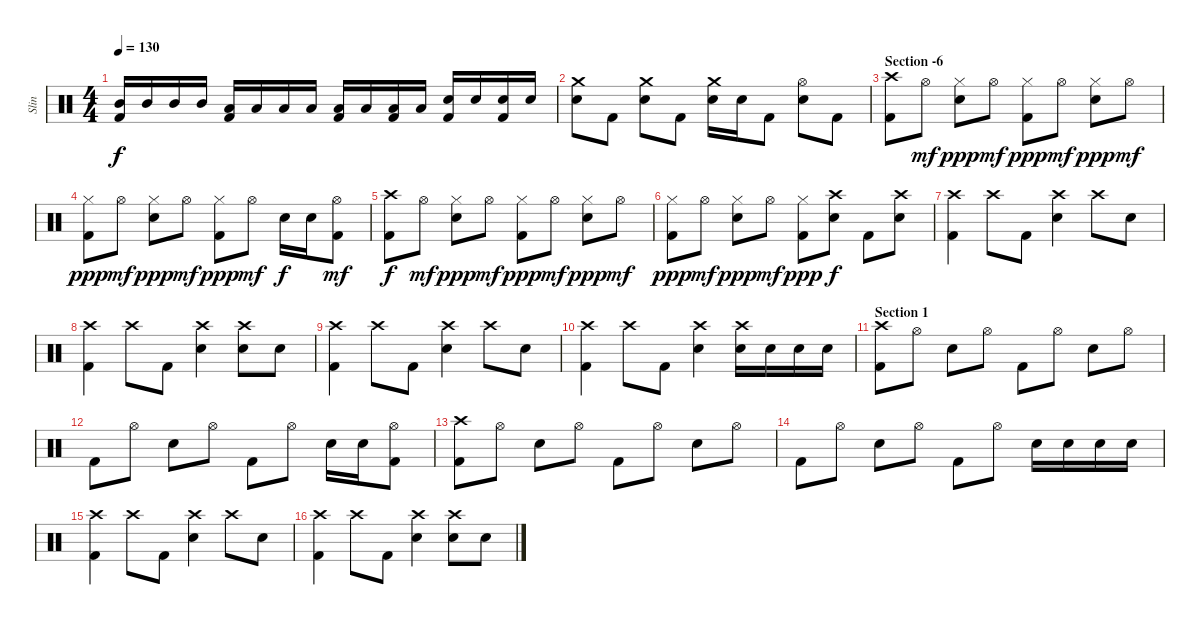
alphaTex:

\track ("Slin" "Slin") {instrument percussion}
\staff {score}
\articulation defaults
\ts (4 4)
\tempo 130
\clef neutral
\ks c
("Mid Tom (hit)" "Kick (hit) 2").16{dy f} "Mid Tom (hit)".16 "Mid Tom (hit)".16 "Mid Tom (hit)".16 ("Low Tom (hit)" "Kick (hit) 2").16 "Low Tom (hit)".16 "Low Tom (hit)".16 "Low Tom (hit)".16 ("Low Floor Tom (hit)" "Kick (hit) 2").16 "Low Floor Tom (hit)".16 ("Low Floor Tom (hit)" "Kick (hit) 2").16 "Low Floor Tom (hit)".16 ("Snare (hit) 2" "Kick (hit) 2").16 "Snare (hit) 2".16 ("Snare (hit) 2" "Kick (hit) 2").16 "Snare (hit) 2".16 |
("Crash medium (hit)" "Snare (hit) 2").8 "Kick (hit) 2".8 ("Crash medium (hit)" "Snare (hit) 2").8 "Kick (hit) 2".8 ("Crash medium (hit)" "Snare (hit) 2").16 "Snare (hit) 2".16 "Kick (hit) 2".8 ("Hi-Hat (open)" "Snare (hit) 2").8 "Kick (hit) 2".8 |
\section ("" "Section -6")
("Crash high (hit)" "Kick (hit) 2").8 "Hi-Hat (open)".8{dy mf} ("Hi-Hat (closed)" "Snare (hit) 2").8{dy ppp} "Hi-Hat (open)".8{dy mf} ("Hi-Hat (closed)" "Kick (hit) 2").8{dy ppp} "Hi-Hat (open)".8{dy mf} ("Hi-Hat (closed)" "Snare (hit) 2").8{dy ppp} "Hi-Hat (open)".8{dy mf} |
("Hi-Hat (closed)" "Kick (hit) 2").8{dy ppp} "Hi-Hat (open)".8{dy mf} ("Hi-Hat (closed)" "Snare (hit) 2").8{dy ppp} "Hi-Hat (open)".8{dy mf} ("Hi-Hat (closed)" "Kick (hit) 2").8{dy ppp} "Hi-Hat (open)".8{dy mf} "Snare (hit) 2".16{dy f} "Snare (hit) 2".16 ("Hi-Hat (open)" "Kick (hit) 2").8{dy mf} |
("Crash high (hit)" "Kick (hit) 2").8{dy f} "Hi-Hat (open)".8{dy mf} ("Hi-Hat (closed)" "Snare (hit) 2").8{dy ppp} "Hi-Hat (open)".8{dy mf} ("Hi-Hat (closed)" "Kick (hit) 2").8{dy ppp} "Hi-Hat (open)".8{dy mf} ("Hi-Hat (closed)" "Snare (hit) 2").8{dy ppp} "Hi-Hat (open)".8{dy mf} |
("Hi-Hat (closed)" "Kick (hit) 2").8{dy ppp} "Hi-Hat (open)".8{dy mf} ("Hi-Hat (closed)" "Snare (hit) 2").8{dy ppp} "Hi-Hat (open)".8{dy mf} ("Hi-Hat (closed)" "Kick (hit) 2").8{dy ppp} ("Crash high (hit)" "Snare (hit) 2").8{dy f} "Kick (hit) 2".8 ("Crash high (hit)" "Snare (hit) 2").8 |
("Crash high (hit)" "Kick (hit) 2").4 "Crash high (hit)".8 "Kick (hit) 2".8 ("Crash high (hit)" "Snare (hit) 2").4 "Crash high (hit)".8 "Snare (hit) 2".8 |
("Crash high (hit)" "Kick (hit) 2").4 "Crash high (hit)".8 "Kick (hit) 2".8 ("Crash high (hit)" "Snare (hit) 2").4 ("Crash high (hit)" "Snare (hit) 2").8 "Snare (hit) 2".8 |
("Crash high (hit)" "Kick (hit) 2").4 "Crash high (hit)".8 "Kick (hit) 2".8 ("Crash high (hit)" "Snare (hit) 2").4 "Crash high (hit)".8 "Snare (hit) 2".8 |
("Crash high (hit)" "Kick (hit) 2").4 "Crash high (hit)".8 "Kick (hit) 2".8 ("Crash high (hit)" "Snare (hit) 2").4 ("Crash high (hit)" "Snare (hit) 2").16 "Snare (hit) 2".16 "Snare (hit) 2".16 "Snare (hit) 2".16 |
\section ("" "Section 1")
("Crash high (hit)" "Kick (hit) 2").8 "Hi-Hat (open)".8 "Snare (hit) 2".8 "Hi-Hat (open)".8 "Kick (hit) 2".8 "Hi-Hat (open)".8 "Snare (hit) 2".8 "Hi-Hat (open)".8 |
"Kick (hit) 2".8 "Hi-Hat (open)".8 "Snare (hit) 2".8 "Hi-Hat (open)".8 "Kick (hit) 2".8 "Hi-Hat (open)".8 "Snare (hit) 2".16 "Snare (hit) 2".16 ("Hi-Hat (open)" "Kick (hit) 2").8 |
("Crash high (hit)" "Kick (hit) 2").8 "Hi-Hat (open)".8 "Snare (hit) 2".8 "Hi-Hat (open)".8 "Kick (hit) 2".8 "Hi-Hat (open)".8 "Snare (hit) 2".8 "Hi-Hat (open)".8 |
"Kick (hit) 2".8 "Hi-Hat (open)".8 "Snare (hit) 2".8 "Hi-Hat (open)".8 "Kick (hit) 2".8 "Hi-Hat (open)".8 "Snare (hit) 2".16 "Snare (hit) 2".16 "Snare (hit) 2".16 "Snare (hit) 2".16 |
("Crash high (hit)" "Kick (hit) 2").4 "Crash high (hit)".8 "Kick (hit) 2".8 ("Crash high (hit)" "Snare (hit) 2").4 "Crash high (hit)".8 "Snare (hit) 2".8 |
("Crash high (hit)" "Kick (hit) 2").4 "Crash high (hit)".8 "Kick (hit) 2".8 ("Crash high (hit)" "Snare (hit) 2").4 ("Crash high (hit)" "Snare (hit) 2").8 "Snare (hit) 2".8
